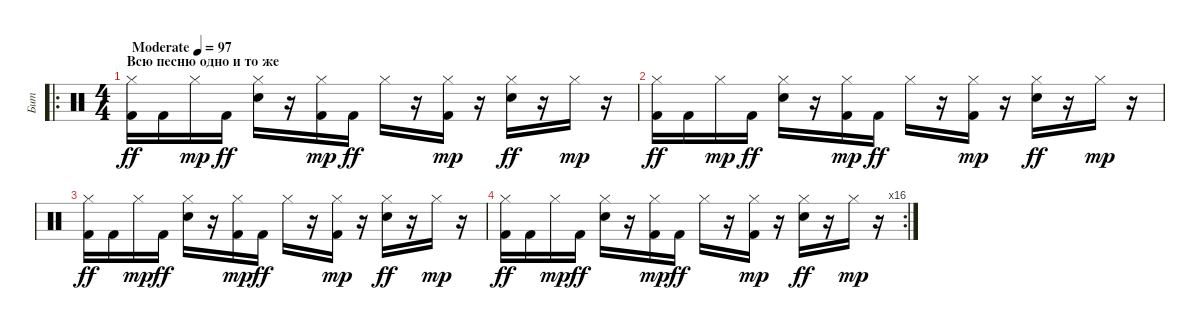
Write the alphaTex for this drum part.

\track ("Бит" "Бит") {instrument percussion}
\staff {score}
\articulation defaults
\ro
\ts (4 4)
\section ("" "Всю песню одно и то же")
\tempo (97 "Moderate")
\clef neutral
\ks c
("Kick (hit) 2" "Hi-Hat (closed)").16{dy ff} "Kick (hit) 2".16 "Hi-Hat (closed)".16{dy mp} "Kick (hit) 2".16{dy ff} ("Hi-Hat (closed)" "Electric Snare (hit)").16 r.16 ("Kick (hit) 2" "Hi-Hat (closed)").16{dy mp} "Kick (hit) 2".16{dy ff} "Hi-Hat (closed)".16 r.16 ("Kick (hit) 2" "Hi-Hat (closed)").16{dy mp} r.16 ("Hi-Hat (closed)" "Electric Snare (hit)").16{dy ff} r.16 "Hi-Hat (closed)".16{dy mp} r.16 |
("Kick (hit) 2" "Hi-Hat (closed)").16{dy ff} "Kick (hit) 2".16 "Hi-Hat (closed)".16{dy mp} "Kick (hit) 2".16{dy ff} ("Hi-Hat (closed)" "Electric Snare (hit)").16 r.16 ("Kick (hit) 2" "Hi-Hat (closed)").16{dy mp} "Kick (hit) 2".16{dy ff} "Hi-Hat (closed)".16 r.16 ("Kick (hit) 2" "Hi-Hat (closed)").16{dy mp} r.16 ("Hi-Hat (closed)" "Electric Snare (hit)").16{dy ff} r.16 "Hi-Hat (closed)".16{dy mp} r.16 |
("Kick (hit) 2" "Hi-Hat (closed)").16{dy ff} "Kick (hit) 2".16 "Hi-Hat (closed)".16{dy mp} "Kick (hit) 2".16{dy ff} ("Hi-Hat (closed)" "Electric Snare (hit)").16 r.16 ("Kick (hit) 2" "Hi-Hat (closed)").16{dy mp} "Kick (hit) 2".16{dy ff} "Hi-Hat (closed)".16 r.16 ("Kick (hit) 2" "Hi-Hat (closed)").16{dy mp} r.16 ("Hi-Hat (closed)" "Electric Snare (hit)").16{dy ff} r.16 "Hi-Hat (closed)".16{dy mp} r.16 |
\rc 16
("Kick (hit) 2" "Hi-Hat (closed)").16{dy ff} "Kick (hit) 2".16 "Hi-Hat (closed)".16{dy mp} "Kick (hit) 2".16{dy ff} ("Hi-Hat (closed)" "Electric Snare (hit)").16 r.16 ("Kick (hit) 2" "Hi-Hat (closed)").16{dy mp} "Kick (hit) 2".16{dy ff} "Hi-Hat (closed)".16 r.16 ("Kick (hit) 2" "Hi-Hat (closed)").16{dy mp} r.16 ("Hi-Hat (closed)" "Electric Snare (hit)").16{dy ff} r.16 "Hi-Hat (closed)".16{dy mp} r.16
